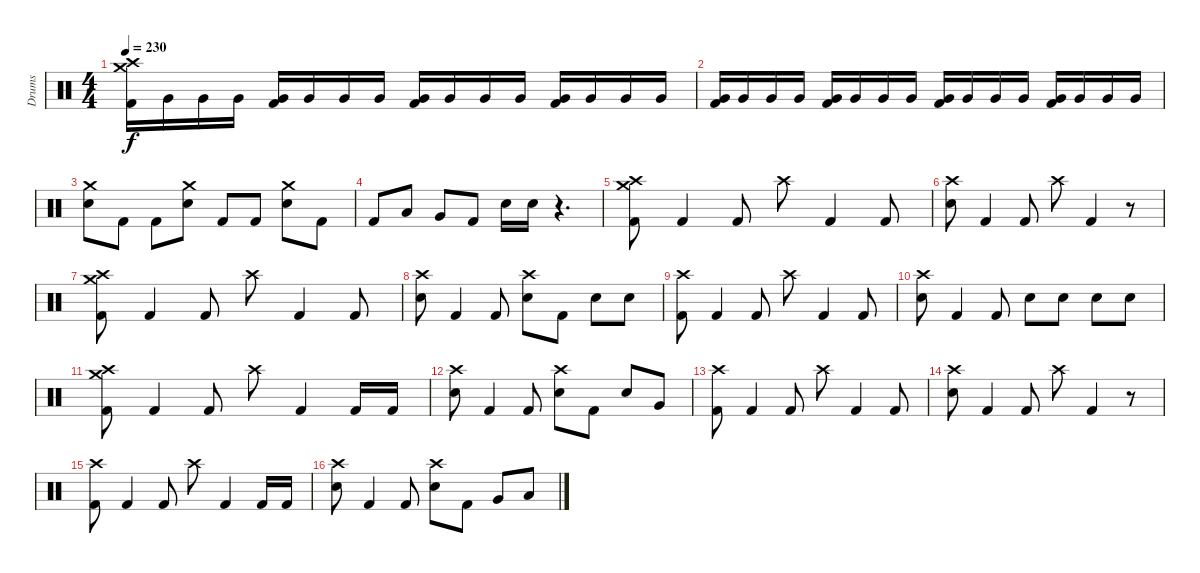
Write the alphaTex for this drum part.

\track ("Drums" "Drums") {instrument percussion}
\staff {score}
\articulation defaults
\ts (4 4)
\tempo 230
\clef neutral
\ks c
("Crash medium (hit)" "Crash high (hit)" "Kick (hit) 2").16{dy f} "Very Low Tom (hit)".16 "Very Low Tom (hit)".16 "Very Low Tom (hit)".16 ("Very Low Tom (hit)" "Kick (hit) 2").16 "Very Low Tom (hit)".16 "Very Low Tom (hit)".16 "Very Low Tom (hit)".16 ("Very Low Tom (hit)" "Kick (hit) 2").16 "Very Low Tom (hit)".16 "Very Low Tom (hit)".16 "Very Low Tom (hit)".16 ("Very Low Tom (hit)" "Kick (hit) 2").16 "Very Low Tom (hit)".16 "Very Low Tom (hit)".16 "Very Low Tom (hit)".16 |
("Very Low Tom (hit)" "Kick (hit) 2").16 "Very Low Tom (hit)".16 "Very Low Tom (hit)".16 "Very Low Tom (hit)".16 ("Very Low Tom (hit)" "Kick (hit) 2").16 "Very Low Tom (hit)".16 "Very Low Tom (hit)".16 "Very Low Tom (hit)".16 ("Very Low Tom (hit)" "Kick (hit) 2").16 "Very Low Tom (hit)".16 "Very Low Tom (hit)".16 "Very Low Tom (hit)".16 ("Very Low Tom (hit)" "Kick (hit) 2").16 "Very Low Tom (hit)".16 "Very Low Tom (hit)".16 "Very Low Tom (hit)".16 |
("Crash medium (hit)" "Electric Snare (hit)").8 "Kick (hit) 2".8 "Kick (hit) 2".8 ("Crash medium (hit)" "Electric Snare (hit)").8 "Kick (hit) 2".8 "Kick (hit) 2".8 ("Crash medium (hit)" "Electric Snare (hit)").8 "Kick (hit) 2".8 |
"Kick (hit) 2".8 "Low Tom (hit)".8 "Very Low Tom (hit)".8 "Kick (hit) 2".8 "Electric Snare (hit)".16 "Electric Snare (hit)".16 r.4{d} |
("Crash medium (hit)" "Crash high (hit)" "Kick (hit) 2").8 "Kick (hit) 2".4 "Kick (hit) 2".8 "Crash high (hit)".8 "Kick (hit) 2".4 "Kick (hit) 2".8 |
("Crash high (hit)" "Electric Snare (hit)").8 "Kick (hit) 2".4 "Kick (hit) 2".8 "Crash high (hit)".8 "Kick (hit) 2".4 r.8 |
("Crash medium (hit)" "Crash high (hit)" "Kick (hit) 2").8 "Kick (hit) 2".4 "Kick (hit) 2".8 "Crash high (hit)".8 "Kick (hit) 2".4 "Kick (hit) 2".8 |
("Crash high (hit)" "Electric Snare (hit)").8 "Kick (hit) 2".4 "Kick (hit) 2".8 ("Crash high (hit)" "Electric Snare (hit)").8 "Kick (hit) 2".8 "Electric Snare (hit)".8 "Electric Snare (hit)".8 |
("Crash high (hit)" "Kick (hit) 2").8 "Kick (hit) 2".4 "Kick (hit) 2".8 "Crash high (hit)".8 "Kick (hit) 2".4 "Kick (hit) 2".8 |
("Crash high (hit)" "Electric Snare (hit)").8 "Kick (hit) 2".4 "Kick (hit) 2".8 "Electric Snare (hit)".8 "Electric Snare (hit)".8 "Electric Snare (hit)".8 "Electric Snare (hit)".8 |
("Crash medium (hit)" "Crash high (hit)" "Kick (hit) 2").8 "Kick (hit) 2".4 "Kick (hit) 2".8 "Crash high (hit)".8 "Kick (hit) 2".4 "Kick (hit) 2".16 "Kick (hit) 2".16 |
("Crash high (hit)" "Electric Snare (hit)").8 "Kick (hit) 2".4 "Kick (hit) 2".8 ("Crash high (hit)" "Electric Snare (hit)").8 "Kick (hit) 2".8 "Electric Snare (hit)".8 "Very Low Tom (hit)".8 |
("Crash high (hit)" "Kick (hit) 2").8 "Kick (hit) 2".4 "Kick (hit) 2".8 "Crash high (hit)".8 "Kick (hit) 2".4 "Kick (hit) 2".8 |
("Crash high (hit)" "Electric Snare (hit)").8 "Kick (hit) 2".4 "Kick (hit) 2".8 "Crash high (hit)".8 "Kick (hit) 2".4 r.8 |
("Crash high (hit)" "Kick (hit) 2").8 "Kick (hit) 2".4 "Kick (hit) 2".8 "Crash high (hit)".8 "Kick (hit) 2".4 "Kick (hit) 2".16 "Kick (hit) 2".16 |
("Crash high (hit)" "Electric Snare (hit)").8 "Kick (hit) 2".4 "Kick (hit) 2".8 ("Crash high (hit)" "Electric Snare (hit)").8 "Kick (hit) 2".8 "Very Low Tom (hit)".8 "Low Floor Tom (hit)".8
